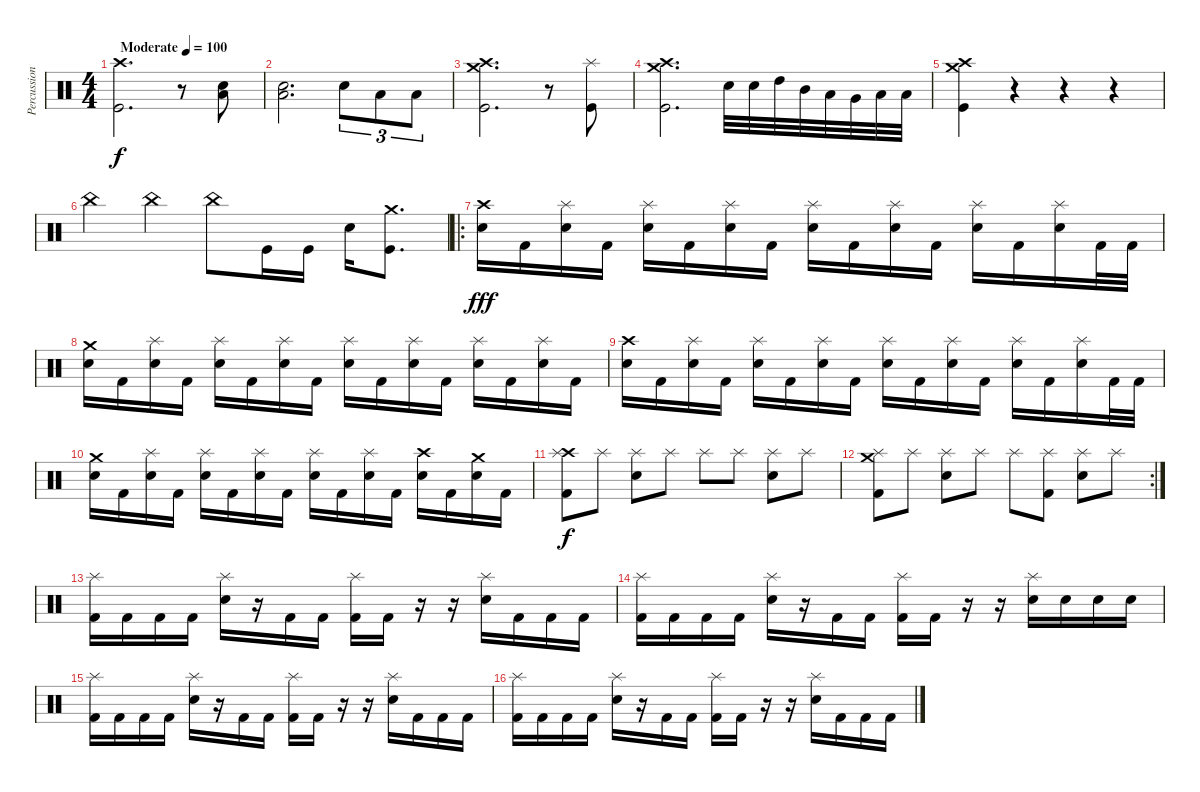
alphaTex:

\track ("Percussions" "Percussion") {instrument percussion}
\staff {score}
\articulation defaults
\ts (4 4)
\tempo (100 "Moderate")
\clef neutral
\ks c
("Crash high (hit)" "Kick (hit)").2{d dy f} r.8 ("Snare (hit) 2" "Low Floor Tom (hit)").8 |
("Snare (hit) 2" "Low Floor Tom (hit)").2{d} "Snare (hit) 2".8{tu (3 2)} "Low Tom (hit)".8{tu (3 2)} "Low Floor Tom (hit)".8{tu (3 2)} |
("Crash medium (hit)" "Crash high (hit)" "Kick (hit)").2{d} r.8 ("Splash (hit)" "Kick (hit)").8 |
("Crash high (hit)" "Kick (hit)" "Crash medium (hit)").2{d} "Snare (hit) 2".32 "Snare (hit) 2".32 "High Tom (hit)".32 "Mid Tom (hit)".32 "Low Tom (hit)".32 "Very Low Tom (hit)".32 "Low Floor Tom (hit)".32 "Low Floor Tom (hit)".32 |
("Crash medium (hit)" "Kick (hit)" "Crash high (hit)").4 r.4 r.4 r.4 |
"China (hit)".4 "China (hit)".4 "China (hit)".8 "Kick (hit)".16 "Kick (hit)".16 "Snare (hit) 2".16 ("Crash medium (hit)" "Kick (hit)").8{d} |
\ro
("Crash high (hit)" "Snare (hit) 2").16{dy fff} "Kick (hit) 2".16 ("Splash (hit)" "Snare (hit) 2").16 "Kick (hit) 2".16 ("Splash (hit)" "Snare (hit) 2").16 "Kick (hit) 2".16 ("Splash (hit)" "Snare (hit) 2").16 "Kick (hit) 2".16 ("Splash (hit)" "Snare (hit) 2").16 "Kick (hit) 2".16 ("Splash (hit)" "Snare (hit) 2").16 "Kick (hit) 2".16 ("Splash (hit)" "Snare (hit) 2").16 "Kick (hit) 2".16 ("Splash (hit)" "Snare (hit) 2").16 "Kick (hit) 2".32 "Kick (hit) 2".32 |
("Crash medium (hit)" "Snare (hit) 2").16 "Kick (hit) 2".16 ("Splash (hit)" "Snare (hit) 2").16 "Kick (hit) 2".16 ("Splash (hit)" "Snare (hit) 2").16 "Kick (hit) 2".16 ("Splash (hit)" "Snare (hit) 2").16 "Kick (hit) 2".16 ("Splash (hit)" "Snare (hit) 2").16 "Kick (hit) 2".16 ("Splash (hit)" "Snare (hit) 2").16 "Kick (hit) 2".16 ("Splash (hit)" "Snare (hit) 2").16 "Kick (hit) 2".16 ("Splash (hit)" "Snare (hit) 2").16 "Kick (hit) 2".16 |
("Crash high (hit)" "Snare (hit) 2").16 "Kick (hit) 2".16 ("Splash (hit)" "Snare (hit) 2").16 "Kick (hit) 2".16 ("Splash (hit)" "Snare (hit) 2").16 "Kick (hit) 2".16 ("Splash (hit)" "Snare (hit) 2").16 "Kick (hit) 2".16 ("Splash (hit)" "Snare (hit) 2").16 "Kick (hit) 2".16 ("Splash (hit)" "Snare (hit) 2").16 "Kick (hit) 2".16 ("Splash (hit)" "Snare (hit) 2").16 "Kick (hit) 2".16 ("Splash (hit)" "Snare (hit) 2").16 "Kick (hit) 2".32 "Kick (hit) 2".32 |
("Crash medium (hit)" "Snare (hit) 2").16 "Kick (hit) 2".16 ("Splash (hit)" "Snare (hit) 2").16 "Kick (hit) 2".16 ("Splash (hit)" "Snare (hit) 2").16 "Kick (hit) 2".16 ("Splash (hit)" "Snare (hit) 2").16 "Kick (hit) 2".16 ("Splash (hit)" "Snare (hit) 2").16 "Kick (hit) 2".16 ("Splash (hit)" "Snare (hit) 2").16 "Kick (hit) 2".16 ("Crash high (hit)" "Snare (hit) 2").16 "Kick (hit) 2".16 ("Crash medium (hit)" "Snare (hit) 2").16 "Kick (hit) 2".16 |
("Crash high (hit)" "Kick (hit) 2" "Splash (hit)").8{dy f} "Splash (hit)".8 ("Snare (hit) 2" "Splash (hit)").8 "Splash (hit)".8 "Splash (hit)".8 "Splash (hit)".8 ("Snare (hit) 2" "Splash (hit)").8 "Splash (hit)".8 |
\rc 2
("Crash medium (hit)" "Kick (hit) 2" "Splash (hit)").8 "Splash (hit)".8 ("Snare (hit) 2" "Splash (hit)").8 "Splash (hit)".8 "Splash (hit)".8 ("Kick (hit) 2" "Splash (hit)").8 ("Snare (hit) 2" "Splash (hit)").8 "Splash (hit)".8 |
("Splash (hit)" "Kick (hit) 2").16 "Kick (hit) 2".16 "Kick (hit) 2".16 "Kick (hit) 2".16 ("Splash (hit)" "Snare (hit) 2").16 r.16 "Kick (hit) 2".16 "Kick (hit) 2".16 ("Splash (hit)" "Kick (hit) 2").16 "Kick (hit) 2".16 r.16 r.16 ("Splash (hit)" "Snare (hit) 2").16 "Kick (hit) 2".16 "Kick (hit) 2".16 "Kick (hit) 2".16 |
("Splash (hit)" "Kick (hit) 2").16 "Kick (hit) 2".16 "Kick (hit) 2".16 "Kick (hit) 2".16 ("Splash (hit)" "Snare (hit) 2").16 r.16 "Kick (hit) 2".16 "Kick (hit) 2".16 ("Splash (hit)" "Kick (hit) 2").16 "Kick (hit) 2".16 r.16 r.16 ("Splash (hit)" "Snare (hit) 2").16 "Snare (hit) 2".16 "Snare (hit) 2".16 "Snare (hit) 2".16 |
("Splash (hit)" "Kick (hit) 2").16 "Kick (hit) 2".16 "Kick (hit) 2".16 "Kick (hit) 2".16 ("Splash (hit)" "Snare (hit) 2").16 r.16 "Kick (hit) 2".16 "Kick (hit) 2".16 ("Splash (hit)" "Kick (hit) 2").16 "Kick (hit) 2".16 r.16 r.16 ("Splash (hit)" "Snare (hit) 2").16 "Kick (hit) 2".16 "Kick (hit) 2".16 "Kick (hit) 2".16 |
("Splash (hit)" "Kick (hit) 2").16 "Kick (hit) 2".16 "Kick (hit) 2".16 "Kick (hit) 2".16 ("Splash (hit)" "Snare (hit) 2").16 r.16 "Kick (hit) 2".16 "Kick (hit) 2".16 ("Splash (hit)" "Kick (hit) 2").16 "Kick (hit) 2".16 r.16 r.16 ("Splash (hit)" "Snare (hit) 2").16 "Kick (hit) 2".16 "Kick (hit) 2".16 "Kick (hit) 2".16
